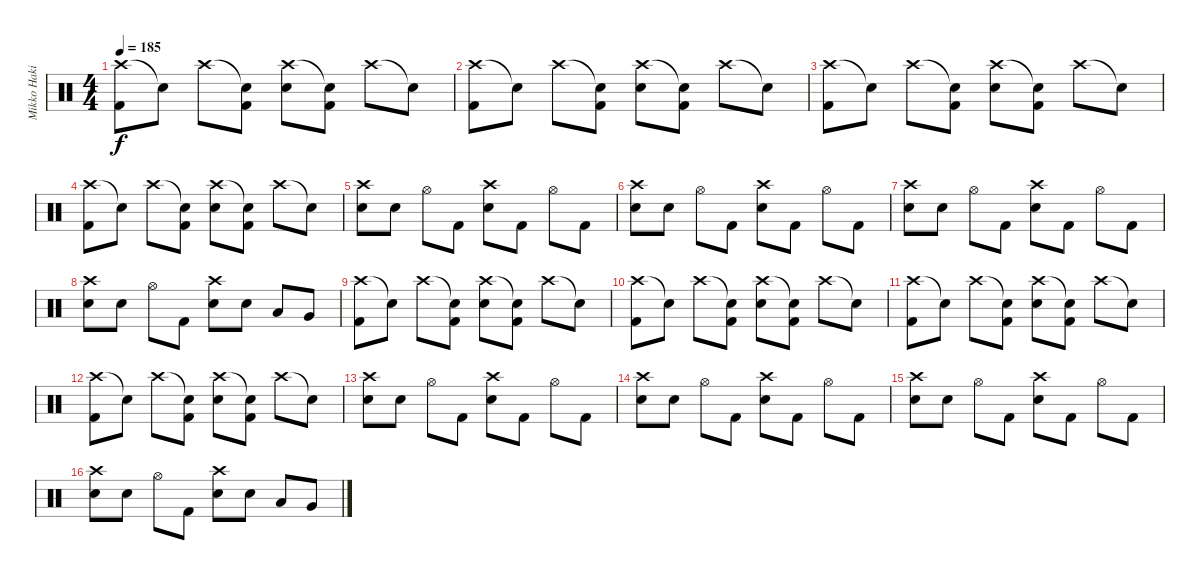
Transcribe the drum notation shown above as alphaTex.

\track ("Mikko Hakila" "Mikko Haki") {instrument percussion}
\staff {score}
\articulation defaults
\ts (4 4)
\tempo 185
\clef neutral
\ks c
("Crash high (hit)" "Kick (hit) 2").8{dy f} "Snare (hit)"{t}.8 "Crash high (hit)".8 ("Snare (hit)"{t} "Kick (hit) 2").8 ("Crash high (hit)" "Snare (hit) 2").8 ("Snare (hit)"{t} "Kick (hit) 2").8 "Crash high (hit)".8 "Snare (hit)"{t}.8 |
("Crash high (hit)" "Kick (hit) 2").8 "Snare (hit)"{t}.8 "Crash high (hit)".8 ("Snare (hit)"{t} "Kick (hit) 2").8 ("Crash high (hit)" "Snare (hit) 2").8 ("Snare (hit)"{t} "Kick (hit) 2").8 "Crash high (hit)".8 "Snare (hit)"{t}.8 |
("Crash high (hit)" "Kick (hit) 2").8 "Snare (hit)"{t}.8 "Crash high (hit)".8 ("Snare (hit)"{t} "Kick (hit) 2").8 ("Crash high (hit)" "Snare (hit) 2").8 ("Snare (hit)"{t} "Kick (hit) 2").8 "Crash high (hit)".8 "Snare (hit)"{t}.8 |
("Crash high (hit)" "Kick (hit) 2").8 "Snare (hit)"{t}.8 "Crash high (hit)".8 ("Snare (hit)"{t} "Kick (hit) 2").8 ("Crash high (hit)" "Snare (hit) 2").8 ("Snare (hit)"{t} "Kick (hit) 2").8 "Crash high (hit)".8 "Snare (hit)"{t}.8 |
("Crash high (hit)" "Snare (hit) 2").8 "Snare (hit) 2".8 "Hi-Hat (open)".8 "Kick (hit) 2".8 ("Crash high (hit)" "Snare (hit) 2").8 "Kick (hit) 2".8 "Hi-Hat (open)".8 "Kick (hit) 2".8 |
("Crash high (hit)" "Snare (hit) 2").8 "Snare (hit) 2".8 "Hi-Hat (open)".8 "Kick (hit) 2".8 ("Crash high (hit)" "Snare (hit) 2").8 "Kick (hit) 2".8 "Hi-Hat (open)".8 "Kick (hit) 2".8 |
("Crash high (hit)" "Snare (hit) 2").8 "Snare (hit) 2".8 "Hi-Hat (open)".8 "Kick (hit) 2".8 ("Crash high (hit)" "Snare (hit) 2").8 "Kick (hit) 2".8 "Hi-Hat (open)".8 "Kick (hit) 2".8 |
("Crash high (hit)" "Snare (hit) 2").8 "Snare (hit) 2".8 "Hi-Hat (open)".8 "Kick (hit) 2".8 ("Crash high (hit)" "Snare (hit) 2").8 "Snare (hit) 2".8 "Low Tom (hit)".8 "Very Low Tom (hit)".8 |
("Crash high (hit)" "Kick (hit) 2").8 "Snare (hit)"{t}.8 "Crash high (hit)".8 ("Snare (hit)"{t} "Kick (hit) 2").8 ("Crash high (hit)" "Snare (hit) 2").8 ("Snare (hit)"{t} "Kick (hit) 2").8 "Crash high (hit)".8 "Snare (hit)"{t}.8 |
("Crash high (hit)" "Kick (hit) 2").8 "Snare (hit)"{t}.8 "Crash high (hit)".8 ("Snare (hit)"{t} "Kick (hit) 2").8 ("Crash high (hit)" "Snare (hit) 2").8 ("Snare (hit)"{t} "Kick (hit) 2").8 "Crash high (hit)".8 "Snare (hit)"{t}.8 |
("Crash high (hit)" "Kick (hit) 2").8 "Snare (hit)"{t}.8 "Crash high (hit)".8 ("Snare (hit)"{t} "Kick (hit) 2").8 ("Crash high (hit)" "Snare (hit) 2").8 ("Snare (hit)"{t} "Kick (hit) 2").8 "Crash high (hit)".8 "Snare (hit)"{t}.8 |
("Crash high (hit)" "Kick (hit) 2").8 "Snare (hit)"{t}.8 "Crash high (hit)".8 ("Snare (hit)"{t} "Kick (hit) 2").8 ("Crash high (hit)" "Snare (hit) 2").8 ("Snare (hit)"{t} "Kick (hit) 2").8 "Crash high (hit)".8 "Snare (hit)"{t}.8 |
("Crash high (hit)" "Snare (hit) 2").8 "Snare (hit) 2".8 "Hi-Hat (open)".8 "Kick (hit) 2".8 ("Crash high (hit)" "Snare (hit) 2").8 "Kick (hit) 2".8 "Hi-Hat (open)".8 "Kick (hit) 2".8 |
("Crash high (hit)" "Snare (hit) 2").8 "Snare (hit) 2".8 "Hi-Hat (open)".8 "Kick (hit) 2".8 ("Crash high (hit)" "Snare (hit) 2").8 "Kick (hit) 2".8 "Hi-Hat (open)".8 "Kick (hit) 2".8 |
("Crash high (hit)" "Snare (hit) 2").8 "Snare (hit) 2".8 "Hi-Hat (open)".8 "Kick (hit) 2".8 ("Crash high (hit)" "Snare (hit) 2").8 "Kick (hit) 2".8 "Hi-Hat (open)".8 "Kick (hit) 2".8 |
("Crash high (hit)" "Snare (hit) 2").8 "Snare (hit) 2".8 "Hi-Hat (open)".8 "Kick (hit) 2".8 ("Crash high (hit)" "Snare (hit) 2").8 "Snare (hit) 2".8 "Low Tom (hit)".8 "Very Low Tom (hit)".8
